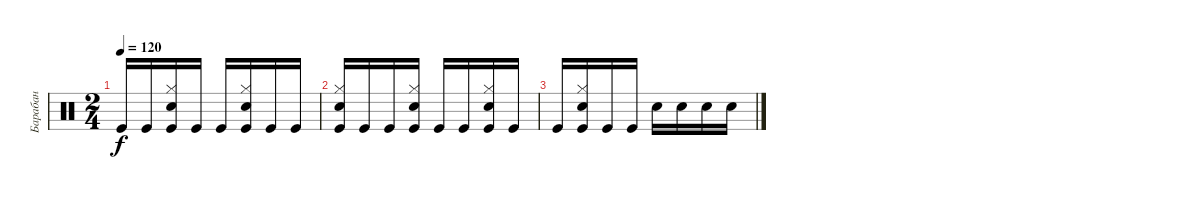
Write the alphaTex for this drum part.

\track ("Барабан" "Барабан") {instrument percussion}
\staff {score}
\articulation defaults
\ts (2 4)
\tempo 120
\clef neutral
\ks c "Kick (hit)".16{dy f} "Kick (hit)".16
("Hi-Hat (closed)" "Electric Snare (hit)" "Kick (hit)").16 "Kick (hit)".16 "Kick (hit)".16 ("Hi-Hat (closed)" "Electric Snare (hit)" "Kick (hit)").16 "Kick (hit)".16 "Kick (hit)".16 |
("Hi-Hat (closed)" "Electric Snare (hit)" "Kick (hit)").16 "Kick (hit)".16 "Kick (hit)".16 ("Hi-Hat (closed)" "Electric Snare (hit)" "Kick (hit)").16 "Kick (hit)".16 "Kick (hit)".16 ("Hi-Hat (closed)" "Electric Snare (hit)" "Kick (hit)").16 "Kick (hit)".16 |
"Kick (hit)".16 ("Hi-Hat (closed)" "Electric Snare (hit)" "Kick (hit)").16 "Kick (hit)".16 "Kick (hit)".16 "Electric Snare (hit)".16 "Electric Snare (hit)".16 "Electric Snare (hit)".16 "Electric Snare (hit)".16
